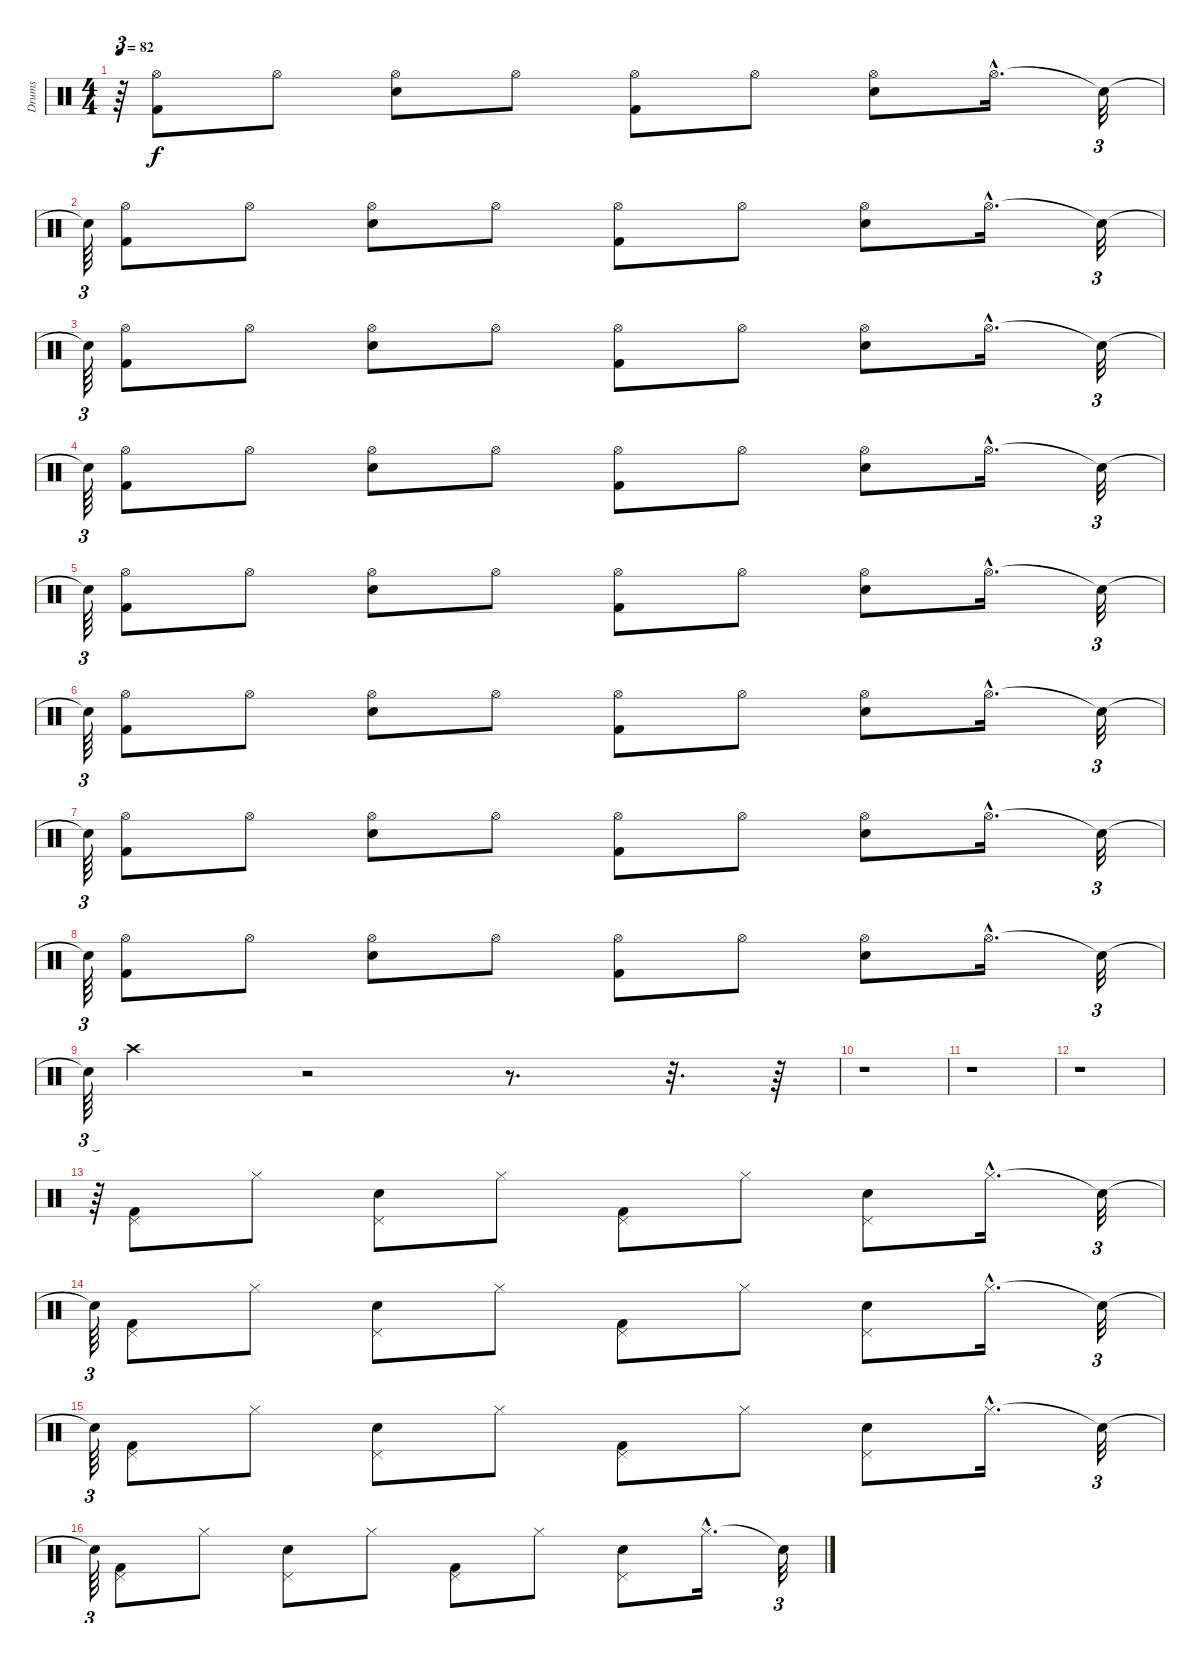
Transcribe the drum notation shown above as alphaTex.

\track ("Drums" "Drums") {instrument percussion}
\staff {score}
\articulation defaults
\ts (4 4)
\tempo 82
\clef neutral
\ks c
r.64{tu (3 2) dy f} ("Hi-Hat (open)" "Kick (hit) 2").8{volume 16 balance 8} "Hi-Hat (open)".8 ("Hi-Hat (open)" "Electric Snare (hit)").8 "Hi-Hat (open)".8 ("Hi-Hat (open)" "Kick (hit) 2").8 "Hi-Hat (open)".8 ("Hi-Hat (open)" "Electric Snare (hit)").8 "Hi-Hat (open)"{hac}.16{d} "Snare (hit)"{t}.32{tu (3 2)} |
"Snare (hit)"{t}.64{tu (3 2)} ("Hi-Hat (open)" "Kick (hit) 2").8 "Hi-Hat (open)".8 ("Hi-Hat (open)" "Electric Snare (hit)").8 "Hi-Hat (open)".8 ("Hi-Hat (open)" "Kick (hit) 2").8 "Hi-Hat (open)".8 ("Hi-Hat (open)" "Electric Snare (hit)").8 "Hi-Hat (open)"{hac}.16{d} "Snare (hit)"{t}.32{tu (3 2)} |
"Snare (hit)"{t}.64{tu (3 2)} ("Hi-Hat (open)" "Kick (hit) 2").8 "Hi-Hat (open)".8 ("Hi-Hat (open)" "Electric Snare (hit)").8 "Hi-Hat (open)".8 ("Hi-Hat (open)" "Kick (hit) 2").8 "Hi-Hat (open)".8 ("Hi-Hat (open)" "Electric Snare (hit)").8 "Hi-Hat (open)"{hac}.16{d} "Snare (hit)"{t}.32{tu (3 2)} |
"Snare (hit)"{t}.64{tu (3 2)} ("Hi-Hat (open)" "Kick (hit) 2").8 "Hi-Hat (open)".8 ("Hi-Hat (open)" "Electric Snare (hit)").8 "Hi-Hat (open)".8 ("Hi-Hat (open)" "Kick (hit) 2").8 "Hi-Hat (open)".8 ("Hi-Hat (open)" "Electric Snare (hit)").8 "Hi-Hat (open)"{hac}.16{d} "Snare (hit)"{t}.32{tu (3 2)} |
"Snare (hit)"{t}.64{tu (3 2)} ("Hi-Hat (open)" "Kick (hit) 2").8 "Hi-Hat (open)".8 ("Hi-Hat (open)" "Electric Snare (hit)").8 "Hi-Hat (open)".8 ("Hi-Hat (open)" "Kick (hit) 2").8 "Hi-Hat (open)".8 ("Hi-Hat (open)" "Electric Snare (hit)").8 "Hi-Hat (open)"{hac}.16{d} "Snare (hit)"{t}.32{tu (3 2)} |
"Snare (hit)"{t}.64{tu (3 2)} ("Hi-Hat (open)" "Kick (hit) 2").8 "Hi-Hat (open)".8 ("Hi-Hat (open)" "Electric Snare (hit)").8 "Hi-Hat (open)".8 ("Hi-Hat (open)" "Kick (hit) 2").8 "Hi-Hat (open)".8 ("Hi-Hat (open)" "Electric Snare (hit)").8 "Hi-Hat (open)"{hac}.16{d} "Snare (hit)"{t}.32{tu (3 2)} |
"Snare (hit)"{t}.64{tu (3 2)} ("Hi-Hat (open)" "Kick (hit) 2").8 "Hi-Hat (open)".8 ("Hi-Hat (open)" "Electric Snare (hit)").8 "Hi-Hat (open)".8 ("Hi-Hat (open)" "Kick (hit) 2").8 "Hi-Hat (open)".8 ("Hi-Hat (open)" "Electric Snare (hit)").8 "Hi-Hat (open)"{hac}.16{d} "Snare (hit)"{t}.32{tu (3 2)} |
"Snare (hit)"{t}.64{tu (3 2)} ("Hi-Hat (open)" "Kick (hit) 2").8 "Hi-Hat (open)".8 ("Hi-Hat (open)" "Electric Snare (hit)").8 "Hi-Hat (open)".8 ("Hi-Hat (open)" "Kick (hit) 2").8 "Hi-Hat (open)".8 ("Hi-Hat (open)" "Electric Snare (hit)").8 "Hi-Hat (open)"{hac}.16{d} "Snare (hit)"{t}.32{tu (3 2)} |
"Snare (hit)"{t}.64{tu (3 2)} "Crash high (hit)".4{volume 10 balance 8} r.2 r.8{d} r.32{d} r.64 |
r.1 |
r.1 |
r.1 |
r.64{tu (3 2)} ("Kick (hit) 2" "Pedal Hi-Hat (hit)").8{volume 9 balance 8} "Hi-Hat (closed)".8 ("Pedal Hi-Hat (hit)" "Electric Snare (hit)").8 "Hi-Hat (closed)".8 ("Pedal Hi-Hat (hit)" "Kick (hit) 2").8 "Hi-Hat (closed)".8 ("Electric Snare (hit)" "Pedal Hi-Hat (hit)").8 "Hi-Hat (closed)"{hac}.16{d} "Snare (hit)"{t}.32{tu (3 2)} |
"Snare (hit)"{t}.64{tu (3 2)} ("Kick (hit) 2" "Pedal Hi-Hat (hit)").8 "Hi-Hat (closed)".8 ("Electric Snare (hit)" "Pedal Hi-Hat (hit)").8 "Hi-Hat (closed)".8 ("Pedal Hi-Hat (hit)" "Kick (hit) 2").8 "Hi-Hat (closed)".8 ("Electric Snare (hit)" "Pedal Hi-Hat (hit)").8 "Hi-Hat (closed)"{hac}.16{d} "Snare (hit)"{t}.32{tu (3 2)} |
"Snare (hit)"{t}.64{tu (3 2)} ("Kick (hit) 2" "Pedal Hi-Hat (hit)").8 "Hi-Hat (closed)".8 ("Electric Snare (hit)" "Pedal Hi-Hat (hit)").8 "Hi-Hat (closed)".8 ("Kick (hit) 2" "Pedal Hi-Hat (hit)").8 "Hi-Hat (closed)".8 ("Electric Snare (hit)" "Pedal Hi-Hat (hit)").8 "Hi-Hat (closed)"{hac}.16{d} "Snare (hit)"{t}.32{tu (3 2)} |
"Snare (hit)"{t}.64{tu (3 2)} ("Pedal Hi-Hat (hit)" "Kick (hit) 2").8 "Hi-Hat (closed)".8 ("Pedal Hi-Hat (hit)" "Electric Snare (hit)").8 "Hi-Hat (closed)".8 ("Kick (hit) 2" "Pedal Hi-Hat (hit)").8 "Hi-Hat (closed)".8 ("Pedal Hi-Hat (hit)" "Electric Snare (hit)").8 "Hi-Hat (closed)"{hac}.16{d} "Snare (hit)"{t}.32{tu (3 2)}
